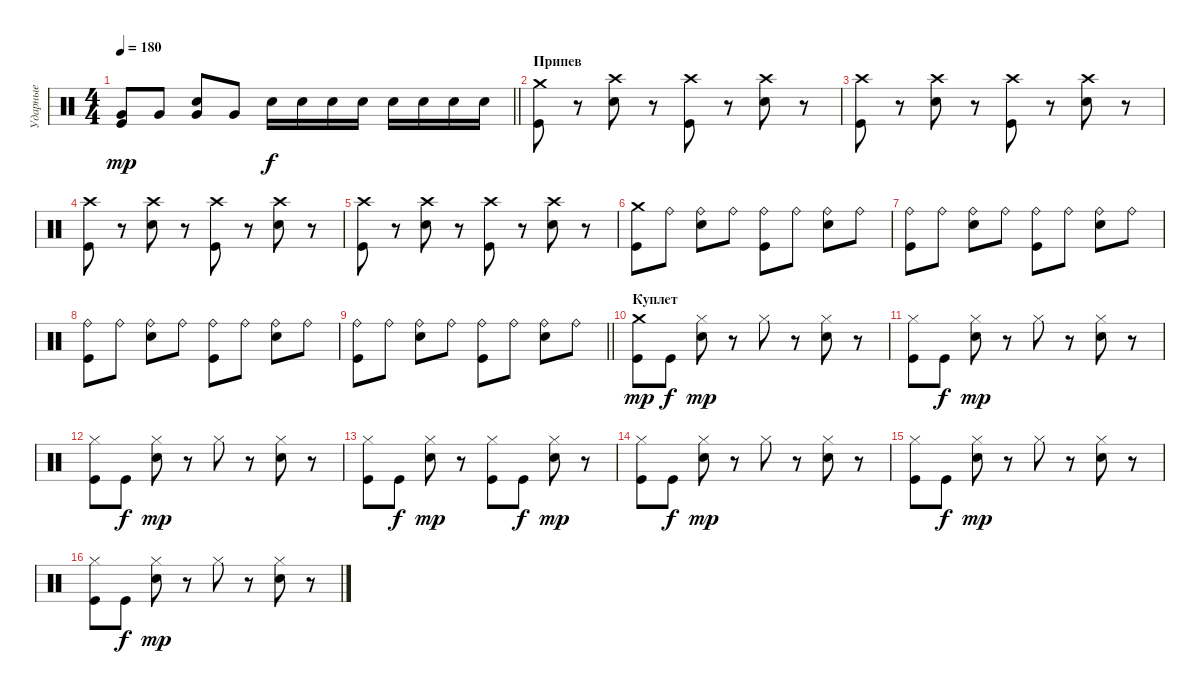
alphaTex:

\track ("Ударные" "Ударные") {instrument percussion}
\staff {score}
\articulation defaults
\ts (4 4)
\tempo 180
\clef neutral
\barLineRight lightlight
\ks c
("Kick (hit)" "Very Low Tom (hit)").8{dy mp} "Very Low Tom (hit)".8 ("Electric Snare (hit)" "Very Low Tom (hit)").8 "Very Low Tom (hit)".8 "Electric Snare (hit)".16{dy f} "Electric Snare (hit)".16 "Electric Snare (hit)".16 "Electric Snare (hit)".16 "Electric Snare (hit)".16 "Electric Snare (hit)".16 "Electric Snare (hit)".16 "Electric Snare (hit)".16 |
\section ("" "Припев")
("Crash medium (hit)" "Kick (hit)").8 r.8 ("Crash high (hit)" "Electric Snare (hit)").8 r.8 ("Crash high (hit)" "Kick (hit)").8 r.8 ("Crash high (hit)" "Electric Snare (hit)").8 r.8 |
("Crash high (hit)" "Kick (hit)").8 r.8 ("Crash high (hit)" "Electric Snare (hit)").8 r.8 ("Crash high (hit)" "Kick (hit)").8 r.8 ("Crash high (hit)" "Electric Snare (hit)").8 r.8 |
("Crash high (hit)" "Kick (hit)").8 r.8 ("Crash high (hit)" "Electric Snare (hit)").8 r.8 ("Crash high (hit)" "Kick (hit)").8 r.8 ("Crash high (hit)" "Electric Snare (hit)").8 r.8 |
("Crash high (hit)" "Kick (hit)").8 r.8 ("Crash high (hit)" "Electric Snare (hit)").8 r.8 ("Crash high (hit)" "Kick (hit)").8 r.8 ("Crash high (hit)" "Electric Snare (hit)").8 r.8 |
("Crash medium (hit)" "Kick (hit)").8 "Ride (bell)".8 ("Ride (bell)" "Electric Snare (hit)").8 "Ride (bell)".8 ("Ride (bell)" "Kick (hit)").8 "Ride (bell)".8 ("Ride (bell)" "Electric Snare (hit)").8 "Ride (bell)".8 |
("Ride (bell)" "Kick (hit)").8 "Ride (bell)".8 ("Ride (bell)" "Electric Snare (hit)").8 "Ride (bell)".8 ("Ride (bell)" "Kick (hit)").8 "Ride (bell)".8 ("Ride (bell)" "Electric Snare (hit)").8 "Ride (bell)".8 |
("Ride (bell)" "Kick (hit)").8 "Ride (bell)".8 ("Ride (bell)" "Electric Snare (hit)").8 "Ride (bell)".8 ("Ride (bell)" "Kick (hit)").8 "Ride (bell)".8 ("Ride (bell)" "Electric Snare (hit)").8 "Ride (bell)".8 |
\barLineRight lightlight
("Ride (bell)" "Kick (hit)").8 "Ride (bell)".8 ("Ride (bell)" "Electric Snare (hit)").8 "Ride (bell)".8 ("Ride (bell)" "Kick (hit)").8 "Ride (bell)".8 ("Ride (bell)" "Electric Snare (hit)").8 "Ride (bell)".8 |
\section ("" "Куплет")
("Crash medium (hit)" "Kick (hit)").8{dy mp} "Kick (hit)".8{dy f} ("Hi-Hat (closed)" "Electric Snare (hit)").8{dy mp} r.8 "Hi-Hat (closed)".8 r.8 ("Hi-Hat (closed)" "Electric Snare (hit)").8 r.8 |
("Hi-Hat (closed)" "Kick (hit)").8 "Kick (hit)".8{dy f} ("Hi-Hat (closed)" "Electric Snare (hit)").8{dy mp} r.8 "Hi-Hat (closed)".8 r.8 ("Hi-Hat (closed)" "Electric Snare (hit)").8 r.8 |
("Hi-Hat (closed)" "Kick (hit)").8 "Kick (hit)".8{dy f} ("Hi-Hat (closed)" "Electric Snare (hit)").8{dy mp} r.8 "Hi-Hat (closed)".8 r.8 ("Hi-Hat (closed)" "Electric Snare (hit)").8 r.8 |
("Hi-Hat (closed)" "Kick (hit)").8 "Kick (hit)".8{dy f} ("Hi-Hat (closed)" "Electric Snare (hit)").8{dy mp} r.8 ("Hi-Hat (closed)" "Kick (hit)").8 "Kick (hit)".8{dy f} ("Hi-Hat (closed)" "Electric Snare (hit)").8{dy mp} r.8 |
("Hi-Hat (closed)" "Kick (hit)").8 "Kick (hit)".8{dy f} ("Hi-Hat (closed)" "Electric Snare (hit)").8{dy mp} r.8 "Hi-Hat (closed)".8 r.8 ("Hi-Hat (closed)" "Electric Snare (hit)").8 r.8 |
("Hi-Hat (closed)" "Kick (hit)").8 "Kick (hit)".8{dy f} ("Hi-Hat (closed)" "Electric Snare (hit)").8{dy mp} r.8 "Hi-Hat (closed)".8 r.8 ("Hi-Hat (closed)" "Electric Snare (hit)").8 r.8 |
("Hi-Hat (closed)" "Kick (hit)").8 "Kick (hit)".8{dy f} ("Hi-Hat (closed)" "Electric Snare (hit)").8{dy mp} r.8 "Hi-Hat (closed)".8 r.8 ("Hi-Hat (closed)" "Electric Snare (hit)").8 r.8
